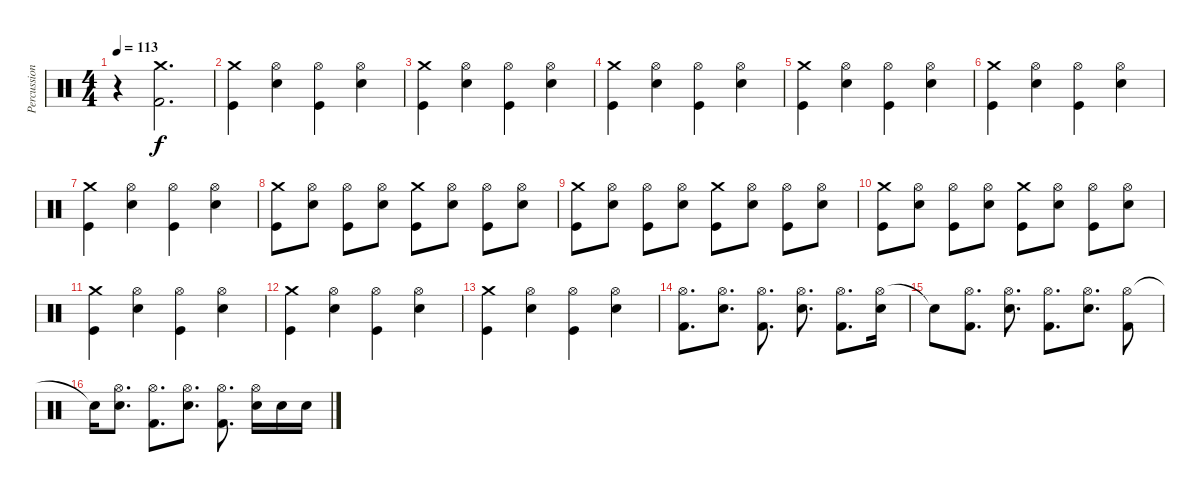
\track ("Percussion" "Percussion") {instrument percussion}
\staff {score}
\articulation defaults
\ts (4 4)
\tempo 113
\clef neutral
\ks c
r.4{dy f} ("Crash medium (hit)" "Kick (hit) 2").2{d} |
("Crash medium (hit)" "Kick (hit)").4 ("Hi-Hat (open)" "Snare (hit) 2").4 ("Hi-Hat (open)" "Kick (hit)").4 ("Hi-Hat (open)" "Snare (hit) 2").4 |
("Crash medium (hit)" "Kick (hit)").4 ("Hi-Hat (open)" "Snare (hit) 2").4 ("Hi-Hat (open)" "Kick (hit)").4 ("Hi-Hat (open)" "Snare (hit) 2").4 |
("Crash medium (hit)" "Kick (hit)").4 ("Hi-Hat (open)" "Snare (hit) 2").4 ("Hi-Hat (open)" "Kick (hit)").4 ("Hi-Hat (open)" "Snare (hit) 2").4 |
("Crash medium (hit)" "Kick (hit)").4 ("Hi-Hat (open)" "Snare (hit) 2").4 ("Hi-Hat (open)" "Kick (hit)").4 ("Hi-Hat (open)" "Snare (hit) 2").4 |
("Crash medium (hit)" "Kick (hit)").4 ("Hi-Hat (open)" "Snare (hit) 2").4 ("Hi-Hat (open)" "Kick (hit)").4 ("Hi-Hat (open)" "Snare (hit) 2").4 |
("Crash medium (hit)" "Kick (hit)").4 ("Hi-Hat (open)" "Snare (hit) 2").4 ("Hi-Hat (open)" "Kick (hit)").4 ("Hi-Hat (open)" "Snare (hit) 2").4 |
("Crash medium (hit)" "Kick (hit)").8 ("Hi-Hat (open)" "Snare (hit) 2").8 ("Hi-Hat (open)" "Kick (hit)").8 ("Hi-Hat (open)" "Snare (hit) 2").8 ("Crash medium (hit)" "Kick (hit)").8 ("Hi-Hat (open)" "Snare (hit) 2").8 ("Hi-Hat (open)" "Kick (hit)").8 ("Hi-Hat (open)" "Snare (hit) 2").8 |
("Crash medium (hit)" "Kick (hit)").8 ("Hi-Hat (open)" "Snare (hit) 2").8 ("Hi-Hat (open)" "Kick (hit)").8 ("Hi-Hat (open)" "Snare (hit) 2").8 ("Crash medium (hit)" "Kick (hit)").8 ("Hi-Hat (open)" "Snare (hit) 2").8 ("Hi-Hat (open)" "Kick (hit)").8 ("Hi-Hat (open)" "Snare (hit) 2").8 |
("Crash medium (hit)" "Kick (hit)").8 ("Hi-Hat (open)" "Snare (hit) 2").8 ("Hi-Hat (open)" "Kick (hit)").8 ("Hi-Hat (open)" "Snare (hit) 2").8 ("Crash medium (hit)" "Kick (hit)").8 ("Hi-Hat (open)" "Snare (hit) 2").8 ("Hi-Hat (open)" "Kick (hit)").8 ("Hi-Hat (open)" "Snare (hit) 2").8 |
("Crash medium (hit)" "Kick (hit)").4 ("Hi-Hat (open)" "Snare (hit) 2").4 ("Hi-Hat (open)" "Kick (hit)").4 ("Hi-Hat (open)" "Snare (hit) 2").4 |
("Crash medium (hit)" "Kick (hit)").4 ("Hi-Hat (open)" "Snare (hit) 2").4 ("Hi-Hat (open)" "Kick (hit)").4 ("Hi-Hat (open)" "Snare (hit) 2").4 |
("Crash medium (hit)" "Kick (hit)").4 ("Hi-Hat (open)" "Snare (hit) 2").4 ("Hi-Hat (open)" "Kick (hit)").4 ("Hi-Hat (open)" "Snare (hit) 2").4 |
("Hi-Hat (open)" "Kick (hit) 2").8{d} ("Hi-Hat (open)" "Electric Snare (hit)").8{d} ("Hi-Hat (open)" "Kick (hit) 2").8{d} ("Hi-Hat (open)" "Electric Snare (hit)").8{d} ("Hi-Hat (open)" "Kick (hit) 2").8{d} ("Hi-Hat (open)" "Electric Snare (hit)").16 |
"Electric Snare (hit)"{t}.8 ("Hi-Hat (open)" "Kick (hit) 2").8{d} ("Hi-Hat (open)" "Electric Snare (hit)").8{d} ("Hi-Hat (open)" "Kick (hit) 2").8{d} ("Hi-Hat (open)" "Electric Snare (hit)").8{d} ("Hi-Hat (open)" "Kick (hit) 2").8 |
"Snare (hit)"{t}.16 ("Hi-Hat (open)" "Electric Snare (hit)").8{d} ("Hi-Hat (open)" "Kick (hit) 2").8{d} ("Hi-Hat (open)" "Electric Snare (hit)").8{d} ("Hi-Hat (open)" "Kick (hit) 2").8{d} ("Hi-Hat (open)" "Electric Snare (hit)").16 "Electric Snare (hit)".16 "Electric Snare (hit)".16
